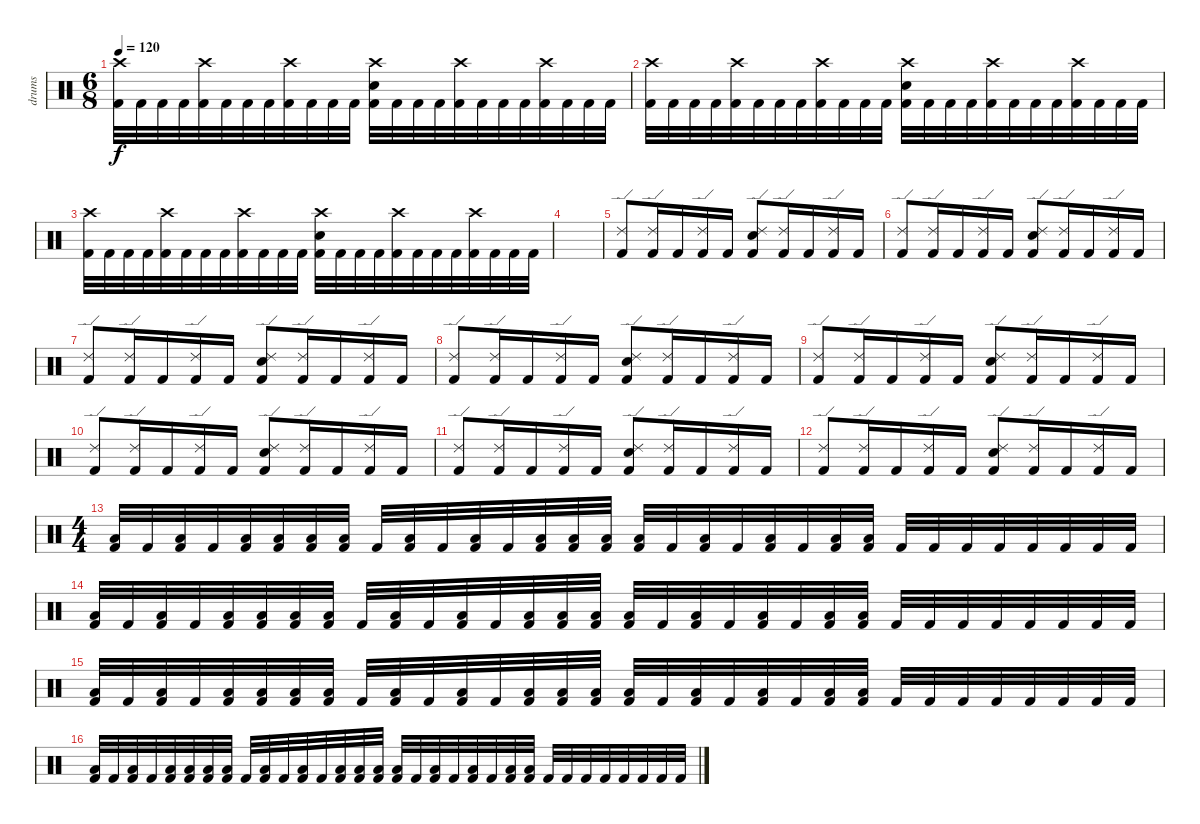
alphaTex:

\track ("drums" "drums") {instrument percussion}
\staff {score}
\articulation defaults
\ts (6 8)
\tempo 120
\clef neutral
\ks c
("Crash high (hit)" "Kick (hit) 2").32{dy f} "Kick (hit) 2".32 "Kick (hit) 2".32 "Kick (hit) 2".32 ("Crash high (hit)" "Kick (hit) 2").32 "Kick (hit) 2".32 "Kick (hit) 2".32 "Kick (hit) 2".32 ("Crash high (hit)" "Kick (hit) 2").32 "Kick (hit) 2".32 "Kick (hit) 2".32 "Kick (hit) 2".32 ("Crash high (hit)" "Electric Snare (hit)" "Kick (hit) 2").32 "Kick (hit) 2".32 "Kick (hit) 2".32 "Kick (hit) 2".32 ("Crash high (hit)" "Kick (hit) 2").32 "Kick (hit) 2".32 "Kick (hit) 2".32 "Kick (hit) 2".32 ("Crash high (hit)" "Kick (hit) 2").32 "Kick (hit) 2".32 "Kick (hit) 2".32 "Kick (hit) 2".32 |
("Crash high (hit)" "Kick (hit) 2").32 "Kick (hit) 2".32 "Kick (hit) 2".32 "Kick (hit) 2".32 ("Crash high (hit)" "Kick (hit) 2").32 "Kick (hit) 2".32 "Kick (hit) 2".32 "Kick (hit) 2".32 ("Crash high (hit)" "Kick (hit) 2").32 "Kick (hit) 2".32 "Kick (hit) 2".32 "Kick (hit) 2".32 ("Crash high (hit)" "Electric Snare (hit)" "Kick (hit) 2").32 "Kick (hit) 2".32 "Kick (hit) 2".32 "Kick (hit) 2".32 ("Crash high (hit)" "Kick (hit) 2").32 "Kick (hit) 2".32 "Kick (hit) 2".32 "Kick (hit) 2".32 ("Crash high (hit)" "Kick (hit) 2").32 "Kick (hit) 2".32 "Kick (hit) 2".32 "Kick (hit) 2".32 |
("Crash high (hit)" "Kick (hit) 2").32 "Kick (hit) 2".32 "Kick (hit) 2".32 "Kick (hit) 2".32 ("Crash high (hit)" "Kick (hit) 2").32 "Kick (hit) 2".32 "Kick (hit) 2".32 "Kick (hit) 2".32 ("Crash high (hit)" "Kick (hit) 2").32 "Kick (hit) 2".32 "Kick (hit) 2".32 "Kick (hit) 2".32 ("Crash high (hit)" "Electric Snare (hit)" "Kick (hit) 2").32 "Kick (hit) 2".32 "Kick (hit) 2".32 "Kick (hit) 2".32 ("Crash high (hit)" "Kick (hit) 2").32 "Kick (hit) 2".32 "Kick (hit) 2".32 "Kick (hit) 2".32 ("Crash high (hit)" "Kick (hit) 2").32 "Kick (hit) 2".32 "Kick (hit) 2".32 "Kick (hit) 2".32 |
|
("Ride (edge) 2" "Kick (hit) 2").8 ("Ride (edge) 2" "Kick (hit) 2").16 "Kick (hit) 2".16 ("Ride (edge) 2" "Kick (hit) 2").16 "Kick (hit) 2".16 ("Ride (edge) 2" "Electric Snare (hit)" "Kick (hit) 2").8 ("Ride (edge) 2" "Kick (hit) 2").16 "Kick (hit) 2".16 ("Ride (edge) 2" "Kick (hit) 2").16 "Kick (hit) 2".16 |
("Ride (edge) 2" "Kick (hit) 2").8 ("Ride (edge) 2" "Kick (hit) 2").16 "Kick (hit) 2".16 ("Ride (edge) 2" "Kick (hit) 2").16 "Kick (hit) 2".16 ("Ride (edge) 2" "Electric Snare (hit)" "Kick (hit) 2").8 ("Ride (edge) 2" "Kick (hit) 2").16 "Kick (hit) 2".16 ("Ride (edge) 2" "Kick (hit) 2").16 "Kick (hit) 2".16 |
("Ride (edge) 2" "Kick (hit) 2").8 ("Ride (edge) 2" "Kick (hit) 2").16 "Kick (hit) 2".16 ("Ride (edge) 2" "Kick (hit) 2").16 "Kick (hit) 2".16 ("Ride (edge) 2" "Electric Snare (hit)" "Kick (hit) 2").8 ("Ride (edge) 2" "Kick (hit) 2").16 "Kick (hit) 2".16 ("Ride (edge) 2" "Kick (hit) 2").16 "Kick (hit) 2".16 |
("Ride (edge) 2" "Kick (hit) 2").8 ("Ride (edge) 2" "Kick (hit) 2").16 "Kick (hit) 2".16 ("Ride (edge) 2" "Kick (hit) 2").16 "Kick (hit) 2".16 ("Ride (edge) 2" "Electric Snare (hit)" "Kick (hit) 2").8 ("Ride (edge) 2" "Kick (hit) 2").16 "Kick (hit) 2".16 ("Ride (edge) 2" "Kick (hit) 2").16 "Kick (hit) 2".16 |
("Ride (edge) 2" "Kick (hit) 2").8 ("Ride (edge) 2" "Kick (hit) 2").16 "Kick (hit) 2".16 ("Ride (edge) 2" "Kick (hit) 2").16 "Kick (hit) 2".16 ("Ride (edge) 2" "Electric Snare (hit)" "Kick (hit) 2").8 ("Ride (edge) 2" "Kick (hit) 2").16 "Kick (hit) 2".16 ("Ride (edge) 2" "Kick (hit) 2").16 "Kick (hit) 2".16 |
("Ride (edge) 2" "Kick (hit) 2").8 ("Ride (edge) 2" "Kick (hit) 2").16 "Kick (hit) 2".16 ("Ride (edge) 2" "Kick (hit) 2").16 "Kick (hit) 2".16 ("Ride (edge) 2" "Electric Snare (hit)" "Kick (hit) 2").8 ("Ride (edge) 2" "Kick (hit) 2").16 "Kick (hit) 2".16 ("Ride (edge) 2" "Kick (hit) 2").16 "Kick (hit) 2".16 |
("Ride (edge) 2" "Kick (hit) 2").8 ("Ride (edge) 2" "Kick (hit) 2").16 "Kick (hit) 2".16 ("Ride (edge) 2" "Kick (hit) 2").16 "Kick (hit) 2".16 ("Ride (edge) 2" "Electric Snare (hit)" "Kick (hit) 2").8 ("Ride (edge) 2" "Kick (hit) 2").16 "Kick (hit) 2".16 ("Ride (edge) 2" "Kick (hit) 2").16 "Kick (hit) 2".16 |
("Ride (edge) 2" "Kick (hit) 2").8 ("Ride (edge) 2" "Kick (hit) 2").16 "Kick (hit) 2".16 ("Ride (edge) 2" "Kick (hit) 2").16 "Kick (hit) 2".16 ("Ride (edge) 2" "Electric Snare (hit)" "Kick (hit) 2").8 ("Ride (edge) 2" "Kick (hit) 2").16 "Kick (hit) 2".16 ("Ride (edge) 2" "Kick (hit) 2").16 "Kick (hit) 2".16 |
\ts (4 4)
("Low Floor Tom (hit)" "Kick (hit) 2").32 "Kick (hit) 2".32 ("Low Tom (hit)" "Kick (hit) 2").32 "Kick (hit) 2".32 ("Low Floor Tom (hit)" "Kick (hit) 2").32 ("Low Tom (hit)" "Kick (hit) 2").32 ("Low Tom (hit)" "Kick (hit) 2").32 ("Low Floor Tom (hit)" "Kick (hit) 2").32 "Kick (hit) 2".32 ("Low Floor Tom (hit)" "Kick (hit) 2").32 "Kick (hit) 2".32 ("Low Tom (hit)" "Kick (hit) 2").32 "Kick (hit) 2".32 ("Low Floor Tom (hit)" "Kick (hit) 2").32 ("Low Tom (hit)" "Kick (hit) 2").32 ("Low Floor Tom (hit)" "Kick (hit) 2").32 ("Low Tom (hit)" "Kick (hit) 2").32 "Kick (hit) 2".32 ("Low Floor Tom (hit)" "Kick (hit) 2").32 "Kick (hit) 2".32 ("Low Tom (hit)" "Kick (hit) 2").32 "Kick (hit) 2".32 ("Low Floor Tom (hit)" "Kick (hit) 2").32 ("Low Floor Tom (hit)" "Kick (hit) 2").32 "Kick (hit) 2".32 "Kick (hit) 2".32 "Kick (hit) 2".32 "Kick (hit) 2".32 "Kick (hit) 2".32 "Kick (hit) 2".32 "Kick (hit) 2".32 "Kick (hit) 2".32 |
("Low Floor Tom (hit)" "Kick (hit) 2").32 "Kick (hit) 2".32 ("Low Tom (hit)" "Kick (hit) 2").32 "Kick (hit) 2".32 ("Low Floor Tom (hit)" "Kick (hit) 2").32 ("Low Tom (hit)" "Kick (hit) 2").32 ("Low Tom (hit)" "Kick (hit) 2").32 ("Low Floor Tom (hit)" "Kick (hit) 2").32 "Kick (hit) 2".32 ("Low Floor Tom (hit)" "Kick (hit) 2").32 "Kick (hit) 2".32 ("Low Tom (hit)" "Kick (hit) 2").32 "Kick (hit) 2".32 ("Low Floor Tom (hit)" "Kick (hit) 2").32 ("Low Tom (hit)" "Kick (hit) 2").32 ("Low Floor Tom (hit)" "Kick (hit) 2").32 ("Low Tom (hit)" "Kick (hit) 2").32 "Kick (hit) 2".32 ("Low Floor Tom (hit)" "Kick (hit) 2").32 "Kick (hit) 2".32 ("Low Tom (hit)" "Kick (hit) 2").32 "Kick (hit) 2".32 ("Low Floor Tom (hit)" "Kick (hit) 2").32 ("Low Floor Tom (hit)" "Kick (hit) 2").32 "Kick (hit) 2".32 "Kick (hit) 2".32 "Kick (hit) 2".32 "Kick (hit) 2".32 "Kick (hit) 2".32 "Kick (hit) 2".32 "Kick (hit) 2".32 "Kick (hit) 2".32 |
("Low Floor Tom (hit)" "Kick (hit) 2").32 "Kick (hit) 2".32 ("Low Tom (hit)" "Kick (hit) 2").32 "Kick (hit) 2".32 ("Low Floor Tom (hit)" "Kick (hit) 2").32 ("Low Tom (hit)" "Kick (hit) 2").32 ("Low Tom (hit)" "Kick (hit) 2").32 ("Low Floor Tom (hit)" "Kick (hit) 2").32 "Kick (hit) 2".32 ("Low Floor Tom (hit)" "Kick (hit) 2").32 "Kick (hit) 2".32 ("Low Tom (hit)" "Kick (hit) 2").32 "Kick (hit) 2".32 ("Low Floor Tom (hit)" "Kick (hit) 2").32 ("Low Tom (hit)" "Kick (hit) 2").32 ("Low Floor Tom (hit)" "Kick (hit) 2").32 ("Low Tom (hit)" "Kick (hit) 2").32 "Kick (hit) 2".32 ("Low Floor Tom (hit)" "Kick (hit) 2").32 "Kick (hit) 2".32 ("Low Tom (hit)" "Kick (hit) 2").32 "Kick (hit) 2".32 ("Low Floor Tom (hit)" "Kick (hit) 2").32 ("Low Floor Tom (hit)" "Kick (hit) 2").32 "Kick (hit) 2".32 "Kick (hit) 2".32 "Kick (hit) 2".32 "Kick (hit) 2".32 "Kick (hit) 2".32 "Kick (hit) 2".32 "Kick (hit) 2".32 "Kick (hit) 2".32 |
("Low Floor Tom (hit)" "Kick (hit) 2").32 "Kick (hit) 2".32 ("Low Tom (hit)" "Kick (hit) 2").32 "Kick (hit) 2".32 ("Low Floor Tom (hit)" "Kick (hit) 2").32 ("Low Tom (hit)" "Kick (hit) 2").32 ("Low Tom (hit)" "Kick (hit) 2").32 ("Low Floor Tom (hit)" "Kick (hit) 2").32 "Kick (hit) 2".32 ("Low Floor Tom (hit)" "Kick (hit) 2").32 "Kick (hit) 2".32 ("Low Tom (hit)" "Kick (hit) 2").32 "Kick (hit) 2".32 ("Low Floor Tom (hit)" "Kick (hit) 2").32 ("Low Tom (hit)" "Kick (hit) 2").32 ("Low Floor Tom (hit)" "Kick (hit) 2").32 ("Low Tom (hit)" "Kick (hit) 2").32 "Kick (hit) 2".32 ("Low Floor Tom (hit)" "Kick (hit) 2").32 "Kick (hit) 2".32 ("Low Tom (hit)" "Kick (hit) 2").32 "Kick (hit) 2".32 ("Low Floor Tom (hit)" "Kick (hit) 2").32 ("Low Floor Tom (hit)" "Kick (hit) 2").32 "Kick (hit) 2".32 "Kick (hit) 2".32 "Kick (hit) 2".32 "Kick (hit) 2".32 "Kick (hit) 2".32 "Kick (hit) 2".32 "Kick (hit) 2".32 "Kick (hit) 2".32
